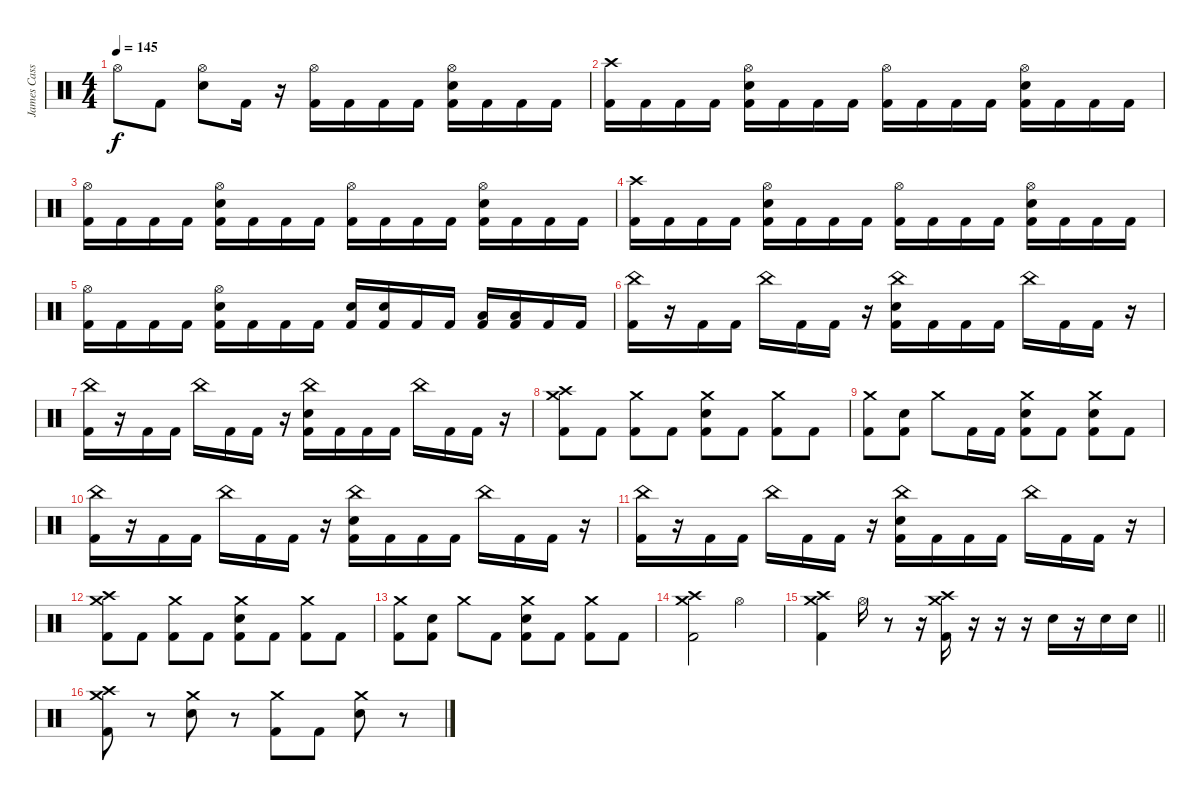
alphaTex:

\track ("James Cassells" "James Cass") {instrument percussion}
\staff {score}
\articulation defaults
\ts (4 4)
\tempo 145
\clef neutral
\ks c "Hi-Hat (open)".8{dy f} "Kick (hit) 2".8
("Hi-Hat (open)" "Electric Snare (hit)").8 "Kick (hit) 2".16 r.16 ("Hi-Hat (open)" "Kick (hit) 2").16 "Kick (hit) 2".16 "Kick (hit) 2".16 "Kick (hit) 2".16 ("Hi-Hat (open)" "Electric Snare (hit)" "Kick (hit) 2").16 "Kick (hit) 2".16 "Kick (hit) 2".16 "Kick (hit) 2".16 |
("Crash high (hit)" "Kick (hit) 2").16 "Kick (hit) 2".16 "Kick (hit) 2".16 "Kick (hit) 2".16 ("Hi-Hat (open)" "Electric Snare (hit)" "Kick (hit) 2").16 "Kick (hit) 2".16 "Kick (hit) 2".16 "Kick (hit) 2".16 ("Hi-Hat (open)" "Kick (hit) 2").16 "Kick (hit) 2".16 "Kick (hit) 2".16 "Kick (hit) 2".16 ("Hi-Hat (open)" "Electric Snare (hit)" "Kick (hit) 2").16 "Kick (hit) 2".16 "Kick (hit) 2".16 "Kick (hit) 2".16 |
("Hi-Hat (open)" "Kick (hit) 2").16 "Kick (hit) 2".16 "Kick (hit) 2".16 "Kick (hit) 2".16 ("Hi-Hat (open)" "Electric Snare (hit)" "Kick (hit) 2").16 "Kick (hit) 2".16 "Kick (hit) 2".16 "Kick (hit) 2".16 ("Hi-Hat (open)" "Kick (hit) 2").16 "Kick (hit) 2".16 "Kick (hit) 2".16 "Kick (hit) 2".16 ("Hi-Hat (open)" "Electric Snare (hit)" "Kick (hit) 2").16 "Kick (hit) 2".16 "Kick (hit) 2".16 "Kick (hit) 2".16 |
("Crash high (hit)" "Kick (hit) 2").16 "Kick (hit) 2".16 "Kick (hit) 2".16 "Kick (hit) 2".16 ("Hi-Hat (open)" "Electric Snare (hit)" "Kick (hit) 2").16 "Kick (hit) 2".16 "Kick (hit) 2".16 "Kick (hit) 2".16 ("Hi-Hat (open)" "Kick (hit) 2").16 "Kick (hit) 2".16 "Kick (hit) 2".16 "Kick (hit) 2".16 ("Hi-Hat (open)" "Electric Snare (hit)" "Kick (hit) 2").16 "Kick (hit) 2".16 "Kick (hit) 2".16 "Kick (hit) 2".16 |
("Hi-Hat (open)" "Kick (hit) 2").16 "Kick (hit) 2".16 "Kick (hit) 2".16 "Kick (hit) 2".16 ("Hi-Hat (open)" "Electric Snare (hit)" "Kick (hit) 2").16 "Kick (hit) 2".16 "Kick (hit) 2".16 "Kick (hit) 2".16 ("Electric Snare (hit)" "Kick (hit) 2").16 ("Electric Snare (hit)" "Kick (hit) 2").16 "Kick (hit) 2".16 "Kick (hit) 2".16 ("Low Floor Tom (hit)" "Kick (hit) 2").16 ("Low Floor Tom (hit)" "Kick (hit) 2").16 "Kick (hit) 2".16 "Kick (hit) 2".16 |
("China (hit)" "Kick (hit) 2").16 r.16 "Kick (hit) 2".16 "Kick (hit) 2".16 "China (hit)".16 "Kick (hit) 2".16 "Kick (hit) 2".16 r.16 ("China (hit)" "Electric Snare (hit)" "Kick (hit) 2").16 "Kick (hit) 2".16 "Kick (hit) 2".16 "Kick (hit) 2".16 "China (hit)".16 "Kick (hit) 2".16 "Kick (hit) 2".16 r.16 |
("China (hit)" "Kick (hit) 2").16 r.16 "Kick (hit) 2".16 "Kick (hit) 2".16 "China (hit)".16 "Kick (hit) 2".16 "Kick (hit) 2".16 r.16 ("China (hit)" "Electric Snare (hit)" "Kick (hit) 2").16 "Kick (hit) 2".16 "Kick (hit) 2".16 "Kick (hit) 2".16 "China (hit)".16 "Kick (hit) 2".16 "Kick (hit) 2".16 r.16 |
("Crash high (hit)" "Crash medium (hit)" "Kick (hit) 2").8 "Kick (hit) 2".8 ("Crash medium (hit)" "Kick (hit) 2").8 "Kick (hit) 2".8 ("Crash medium (hit)" "Electric Snare (hit)" "Kick (hit) 2").8 "Kick (hit) 2".8 ("Crash medium (hit)" "Kick (hit) 2").8 "Kick (hit) 2".8 |
("Crash medium (hit)" "Kick (hit) 2").8 ("Electric Snare (hit)" "Kick (hit) 2").8 "Crash medium (hit)".8 "Kick (hit) 2".16 "Kick (hit) 2".16 ("Crash medium (hit)" "Electric Snare (hit)" "Kick (hit) 2").8 "Kick (hit) 2".8 ("Crash medium (hit)" "Electric Snare (hit)" "Kick (hit) 2").8 "Kick (hit) 2".8 |
("China (hit)" "Kick (hit) 2").16 r.16 "Kick (hit) 2".16 "Kick (hit) 2".16 "China (hit)".16 "Kick (hit) 2".16 "Kick (hit) 2".16 r.16 ("China (hit)" "Electric Snare (hit)" "Kick (hit) 2").16 "Kick (hit) 2".16 "Kick (hit) 2".16 "Kick (hit) 2".16 "China (hit)".16 "Kick (hit) 2".16 "Kick (hit) 2".16 r.16 |
("China (hit)" "Kick (hit) 2").16 r.16 "Kick (hit) 2".16 "Kick (hit) 2".16 "China (hit)".16 "Kick (hit) 2".16 "Kick (hit) 2".16 r.16 ("China (hit)" "Electric Snare (hit)" "Kick (hit) 2").16 "Kick (hit) 2".16 "Kick (hit) 2".16 "Kick (hit) 2".16 "China (hit)".16 "Kick (hit) 2".16 "Kick (hit) 2".16 r.16 |
("Crash high (hit)" "Crash medium (hit)" "Kick (hit) 2").8 "Kick (hit) 2".8 ("Crash medium (hit)" "Kick (hit) 2").8 "Kick (hit) 2".8 ("Crash medium (hit)" "Electric Snare (hit)" "Kick (hit) 2").8 "Kick (hit) 2".8 ("Crash medium (hit)" "Kick (hit) 2").8 "Kick (hit) 2".8 |
("Crash medium (hit)" "Kick (hit) 2").8 ("Electric Snare (hit)" "Kick (hit) 2").8 "Crash medium (hit)".8 "Kick (hit) 2".8 ("Crash medium (hit)" "Electric Snare (hit)" "Kick (hit) 2").8 "Kick (hit) 2".8 ("Crash medium (hit)" "Kick (hit) 2").8 "Kick (hit) 2".8 |
("Crash high (hit)" "Crash medium (hit)" "Kick (hit) 2").2 "Hi-Hat (open)".2 |
\barLineRight lightlight
("Crash high (hit)" "Crash medium (hit)" "Kick (hit) 2").4 "Hi-Hat (open)".16 r.8 r.16 ("Crash high (hit)" "Crash medium (hit)" "Kick (hit) 2").16 r.16 r.16 r.16 "Electric Snare (hit)".16 r.16 "Electric Snare (hit)".16 "Electric Snare (hit)".16 |
("Crash high (hit)" "Crash medium (hit)" "Kick (hit) 2").8 r.8 ("Crash medium (hit)" "Electric Snare (hit)").8 r.8 ("Crash medium (hit)" "Kick (hit) 2").8 "Kick (hit) 2".8 ("Crash medium (hit)" "Electric Snare (hit)").8 r.8
